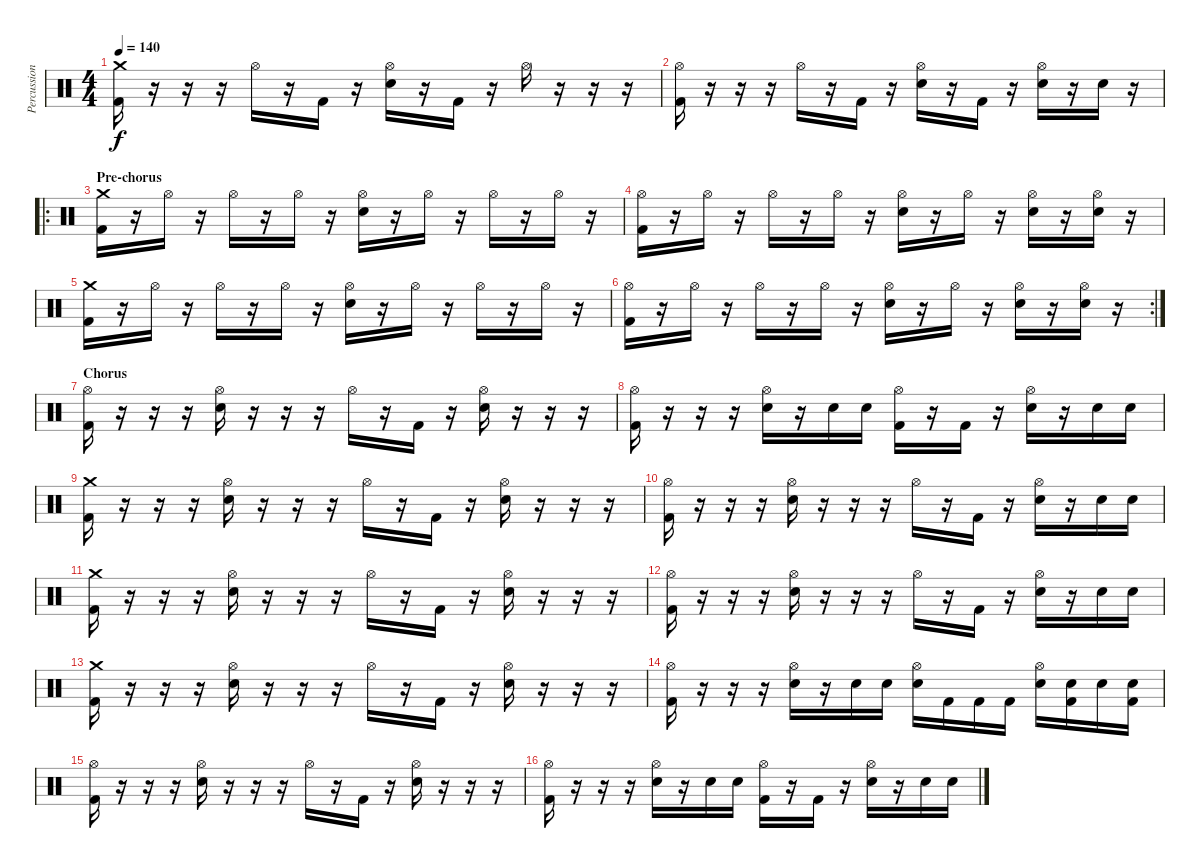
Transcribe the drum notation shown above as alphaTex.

\track ("Percussion" "Percussion") {instrument percussion}
\staff {score}
\articulation defaults
\ts (4 4)
\tempo 140
\clef neutral
\ks c
("Crash medium (hit)" "Kick (hit) 2").16{dy f} r.16 r.16 r.16 "Hi-Hat (open)".16 r.16 "Kick (hit) 2".16 r.16 ("Hi-Hat (open)" "Snare (hit) 2").16 r.16 "Kick (hit) 2".16 r.16 "Hi-Hat (open)".16 r.16 r.16 r.16 |
("Hi-Hat (open)" "Kick (hit) 2").16 r.16 r.16 r.16 "Hi-Hat (open)".16 r.16 "Kick (hit) 2".16 r.16 ("Hi-Hat (open)" "Snare (hit) 2").16 r.16 "Kick (hit) 2".16 r.16 ("Hi-Hat (open)" "Snare (hit) 2").16 r.16 "Snare (hit) 2".16 r.16 |
\ro
\section ("" "Pre-chorus")
("Crash medium (hit)" "Kick (hit) 2").16 r.16 "Hi-Hat (open)".16 r.16 "Hi-Hat (open)".16 r.16 "Hi-Hat (open)".16 r.16 ("Hi-Hat (open)" "Snare (hit) 2").16 r.16 "Hi-Hat (open)".16 r.16 "Hi-Hat (open)".16 r.16 "Hi-Hat (open)".16 r.16 |
("Hi-Hat (open)" "Kick (hit) 2").16 r.16 "Hi-Hat (open)".16 r.16 "Hi-Hat (open)".16 r.16 "Hi-Hat (open)".16 r.16 ("Hi-Hat (open)" "Snare (hit) 2").16 r.16 "Hi-Hat (open)".16 r.16 ("Hi-Hat (open)" "Snare (hit) 2").16 r.16 ("Hi-Hat (open)" "Snare (hit) 2").16 r.16 |
("Crash medium (hit)" "Kick (hit) 2").16 r.16 "Hi-Hat (open)".16 r.16 "Hi-Hat (open)".16 r.16 "Hi-Hat (open)".16 r.16 ("Hi-Hat (open)" "Snare (hit) 2").16 r.16 "Hi-Hat (open)".16 r.16 "Hi-Hat (open)".16 r.16 "Hi-Hat (open)".16 r.16 |
\rc 2
("Hi-Hat (open)" "Kick (hit) 2").16 r.16 "Hi-Hat (open)".16 r.16 "Hi-Hat (open)".16 r.16 "Hi-Hat (open)".16 r.16 ("Hi-Hat (open)" "Snare (hit) 2").16 r.16 "Hi-Hat (open)".16 r.16 ("Hi-Hat (open)" "Snare (hit) 2").16 r.16 ("Hi-Hat (open)" "Snare (hit) 2").16 r.16 |
\section ("" "Chorus")
("Hi-Hat (open)" "Kick (hit) 2").16 r.16 r.16 r.16 ("Hi-Hat (open)" "Snare (hit) 2").16 r.16 r.16 r.16 "Hi-Hat (open)".16 r.16 "Kick (hit) 2".16 r.16 ("Hi-Hat (open)" "Snare (hit) 2").16 r.16 r.16 r.16 |
("Hi-Hat (open)" "Kick (hit) 2").16 r.16 r.16 r.16 ("Hi-Hat (open)" "Snare (hit) 2").16 r.16 "Snare (hit) 2".16 "Snare (hit) 2".16 ("Hi-Hat (open)" "Kick (hit) 2").16 r.16 "Kick (hit) 2".16 r.16 ("Hi-Hat (open)" "Snare (hit) 2").16 r.16 "Snare (hit) 2".16 "Snare (hit) 2".16 |
("Crash medium (hit)" "Kick (hit) 2").16 r.16 r.16 r.16 ("Hi-Hat (open)" "Snare (hit) 2").16 r.16 r.16 r.16 "Hi-Hat (open)".16 r.16 "Kick (hit) 2".16 r.16 ("Hi-Hat (open)" "Snare (hit) 2").16 r.16 r.16 r.16 |
("Hi-Hat (open)" "Kick (hit) 2").16 r.16 r.16 r.16 ("Hi-Hat (open)" "Snare (hit) 2").16 r.16 r.16 r.16 "Hi-Hat (open)".16 r.16 "Kick (hit) 2".16 r.16 ("Hi-Hat (open)" "Snare (hit) 2").16 r.16 "Snare (hit) 2".16 "Snare (hit) 2".16 |
("Crash medium (hit)" "Kick (hit) 2").16 r.16 r.16 r.16 ("Hi-Hat (open)" "Snare (hit) 2").16 r.16 r.16 r.16 "Hi-Hat (open)".16 r.16 "Kick (hit) 2".16 r.16 ("Hi-Hat (open)" "Snare (hit) 2").16 r.16 r.16 r.16 |
("Hi-Hat (open)" "Kick (hit) 2").16 r.16 r.16 r.16 ("Hi-Hat (open)" "Snare (hit) 2").16 r.16 r.16 r.16 "Hi-Hat (open)".16 r.16 "Kick (hit) 2".16 r.16 ("Hi-Hat (open)" "Snare (hit) 2").16 r.16 "Snare (hit) 2".16 "Snare (hit) 2".16 |
("Crash medium (hit)" "Kick (hit) 2").16 r.16 r.16 r.16 ("Hi-Hat (open)" "Snare (hit) 2").16 r.16 r.16 r.16 "Hi-Hat (open)".16 r.16 "Kick (hit) 2".16 r.16 ("Hi-Hat (open)" "Snare (hit) 2").16 r.16 r.16 r.16 |
("Hi-Hat (open)" "Kick (hit) 2").16 r.16 r.16 r.16 ("Hi-Hat (open)" "Snare (hit) 2").16 r.16 "Snare (hit) 2".16 "Snare (hit) 2".16 ("Hi-Hat (open)" "Snare (hit) 2").16 "Kick (hit) 2".16 "Kick (hit) 2".16 "Kick (hit) 2".16 ("Hi-Hat (open)" "Snare (hit) 2").16 ("Snare (hit) 2" "Kick (hit) 2").16 "Snare (hit) 2".16 ("Snare (hit) 2" "Kick (hit) 2").16 |
("Hi-Hat (open)" "Kick (hit) 2").16 r.16 r.16 r.16 ("Hi-Hat (open)" "Snare (hit) 2").16 r.16 r.16 r.16 "Hi-Hat (open)".16 r.16 "Kick (hit) 2".16 r.16 ("Hi-Hat (open)" "Snare (hit) 2").16 r.16 r.16 r.16 |
("Hi-Hat (open)" "Kick (hit) 2").16 r.16 r.16 r.16 ("Hi-Hat (open)" "Snare (hit) 2").16 r.16 "Snare (hit) 2".16 "Snare (hit) 2".16 ("Hi-Hat (open)" "Kick (hit) 2").16 r.16 "Kick (hit) 2".16 r.16 ("Hi-Hat (open)" "Snare (hit) 2").16 r.16 "Snare (hit) 2".16 "Snare (hit) 2".16
